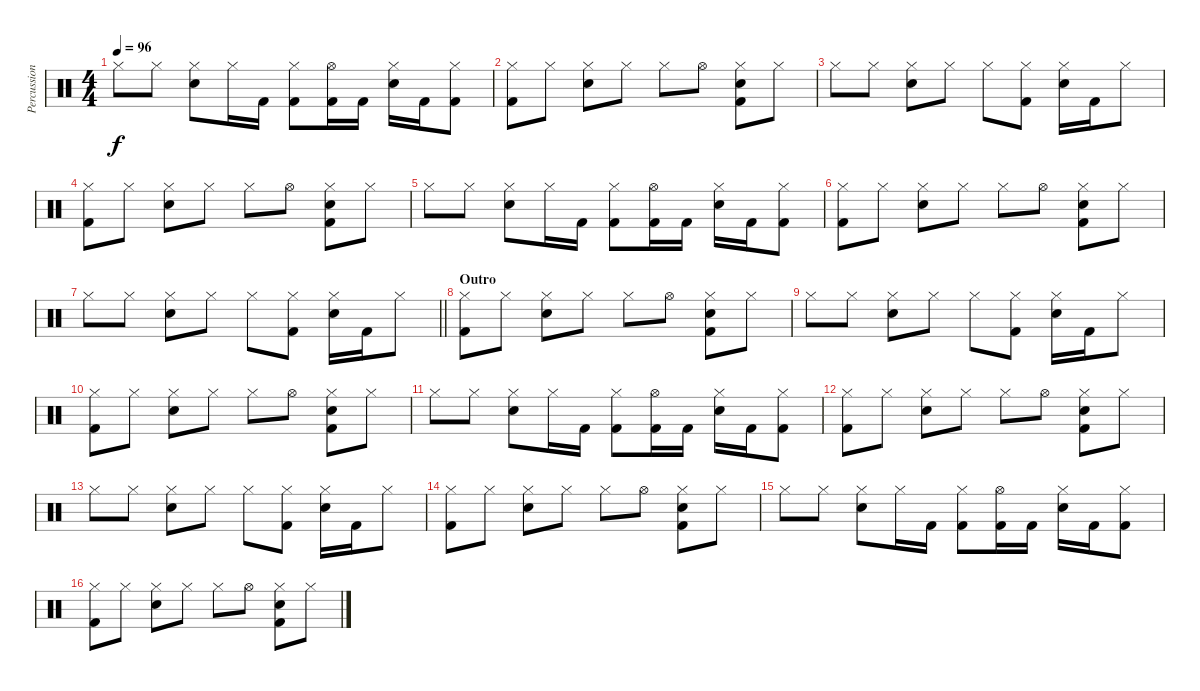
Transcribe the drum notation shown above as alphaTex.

\track ("Percussion" "Percussion") {instrument percussion}
\staff {score}
\articulation defaults
\ts (4 4)
\tempo 96
\clef neutral
\ks c "Hi-Hat (closed)".8{dy f} "Hi-Hat (closed)".8
("Hi-Hat (closed)" "Snare (hit) 2").8 "Hi-Hat (closed)".16 "Kick (hit) 2".16 ("Hi-Hat (closed)" "Kick (hit) 2").8 ("Hi-Hat (open)" "Kick (hit) 2").16 "Kick (hit) 2".16 ("Hi-Hat (closed)" "Snare (hit) 2").16 "Kick (hit) 2".16 ("Hi-Hat (closed)" "Kick (hit) 2").8 |
("Hi-Hat (closed)" "Kick (hit) 2").8 "Hi-Hat (closed)".8 ("Hi-Hat (closed)" "Snare (hit) 2").8 "Hi-Hat (closed)".8 "Hi-Hat (closed)".8 "Hi-Hat (open)".8 ("Hi-Hat (closed)" "Snare (hit) 2" "Kick (hit) 2").8 "Hi-Hat (closed)".8 |
"Hi-Hat (closed)".8 "Hi-Hat (closed)".8 ("Hi-Hat (closed)" "Snare (hit) 2").8 "Hi-Hat (closed)".8 "Hi-Hat (closed)".8 ("Hi-Hat (closed)" "Kick (hit) 2").8 ("Hi-Hat (closed)" "Snare (hit) 2").16 "Kick (hit) 2".16 "Hi-Hat (closed)".8 |
("Hi-Hat (closed)" "Kick (hit) 2").8 "Hi-Hat (closed)".8 ("Hi-Hat (closed)" "Snare (hit) 2").8 "Hi-Hat (closed)".8 "Hi-Hat (closed)".8 "Hi-Hat (open)".8 ("Hi-Hat (closed)" "Snare (hit) 2" "Kick (hit) 2").8 "Hi-Hat (closed)".8 |
"Hi-Hat (closed)".8 "Hi-Hat (closed)".8 ("Hi-Hat (closed)" "Snare (hit) 2").8 "Hi-Hat (closed)".16 "Kick (hit) 2".16 ("Hi-Hat (closed)" "Kick (hit) 2").8 ("Hi-Hat (open)" "Kick (hit) 2").16 "Kick (hit) 2".16 ("Hi-Hat (closed)" "Snare (hit) 2").16 "Kick (hit) 2".16 ("Hi-Hat (closed)" "Kick (hit) 2").8 |
("Hi-Hat (closed)" "Kick (hit) 2").8 "Hi-Hat (closed)".8 ("Hi-Hat (closed)" "Snare (hit) 2").8 "Hi-Hat (closed)".8 "Hi-Hat (closed)".8 "Hi-Hat (open)".8 ("Hi-Hat (closed)" "Snare (hit) 2" "Kick (hit) 2").8 "Hi-Hat (closed)".8 |
\barLineRight lightlight "Hi-Hat (closed)".8 "Hi-Hat (closed)".8
("Hi-Hat (closed)" "Snare (hit) 2").8 "Hi-Hat (closed)".8 "Hi-Hat (closed)".8 ("Hi-Hat (closed)" "Kick (hit) 2").8 ("Hi-Hat (closed)" "Snare (hit) 2").16 "Kick (hit) 2".16 "Hi-Hat (closed)".8 |
\section ("" "Outro")
("Hi-Hat (closed)" "Kick (hit) 2").8 "Hi-Hat (closed)".8 ("Hi-Hat (closed)" "Snare (hit) 2").8 "Hi-Hat (closed)".8 "Hi-Hat (closed)".8 "Hi-Hat (open)".8 ("Hi-Hat (closed)" "Snare (hit) 2" "Kick (hit) 2").8 "Hi-Hat (closed)".8 |
"Hi-Hat (closed)".8 "Hi-Hat (closed)".8 ("Hi-Hat (closed)" "Snare (hit) 2").8 "Hi-Hat (closed)".8 "Hi-Hat (closed)".8 ("Hi-Hat (closed)" "Kick (hit) 2").8 ("Hi-Hat (closed)" "Snare (hit) 2").16 "Kick (hit) 2".16 "Hi-Hat (closed)".8 |
("Hi-Hat (closed)" "Kick (hit) 2").8 "Hi-Hat (closed)".8 ("Hi-Hat (closed)" "Snare (hit) 2").8 "Hi-Hat (closed)".8 "Hi-Hat (closed)".8 "Hi-Hat (open)".8 ("Hi-Hat (closed)" "Snare (hit) 2" "Kick (hit) 2").8 "Hi-Hat (closed)".8 |
"Hi-Hat (closed)".8 "Hi-Hat (closed)".8 ("Hi-Hat (closed)" "Snare (hit) 2").8 "Hi-Hat (closed)".16 "Kick (hit) 2".16 ("Hi-Hat (closed)" "Kick (hit) 2").8 ("Hi-Hat (open)" "Kick (hit) 2").16 "Kick (hit) 2".16 ("Hi-Hat (closed)" "Snare (hit) 2").16 "Kick (hit) 2".16 ("Hi-Hat (closed)" "Kick (hit) 2").8 |
("Hi-Hat (closed)" "Kick (hit) 2").8 "Hi-Hat (closed)".8 ("Hi-Hat (closed)" "Snare (hit) 2").8 "Hi-Hat (closed)".8 "Hi-Hat (closed)".8 "Hi-Hat (open)".8 ("Hi-Hat (closed)" "Snare (hit) 2" "Kick (hit) 2").8 "Hi-Hat (closed)".8 |
"Hi-Hat (closed)".8 "Hi-Hat (closed)".8 ("Hi-Hat (closed)" "Snare (hit) 2").8 "Hi-Hat (closed)".8 "Hi-Hat (closed)".8 ("Hi-Hat (closed)" "Kick (hit) 2").8 ("Hi-Hat (closed)" "Snare (hit) 2").16 "Kick (hit) 2".16 "Hi-Hat (closed)".8 |
("Hi-Hat (closed)" "Kick (hit) 2").8 "Hi-Hat (closed)".8 ("Hi-Hat (closed)" "Snare (hit) 2").8 "Hi-Hat (closed)".8 "Hi-Hat (closed)".8 "Hi-Hat (open)".8 ("Hi-Hat (closed)" "Snare (hit) 2" "Kick (hit) 2").8 "Hi-Hat (closed)".8 |
"Hi-Hat (closed)".8 "Hi-Hat (closed)".8 ("Hi-Hat (closed)" "Snare (hit) 2").8 "Hi-Hat (closed)".16 "Kick (hit) 2".16 ("Hi-Hat (closed)" "Kick (hit) 2").8 ("Hi-Hat (open)" "Kick (hit) 2").16 "Kick (hit) 2".16 ("Hi-Hat (closed)" "Snare (hit) 2").16 "Kick (hit) 2".16 ("Hi-Hat (closed)" "Kick (hit) 2").8 |
("Hi-Hat (closed)" "Kick (hit) 2").8 "Hi-Hat (closed)".8 ("Hi-Hat (closed)" "Snare (hit) 2").8 "Hi-Hat (closed)".8 "Hi-Hat (closed)".8 "Hi-Hat (open)".8 ("Hi-Hat (closed)" "Snare (hit) 2" "Kick (hit) 2").8 "Hi-Hat (closed)".8
